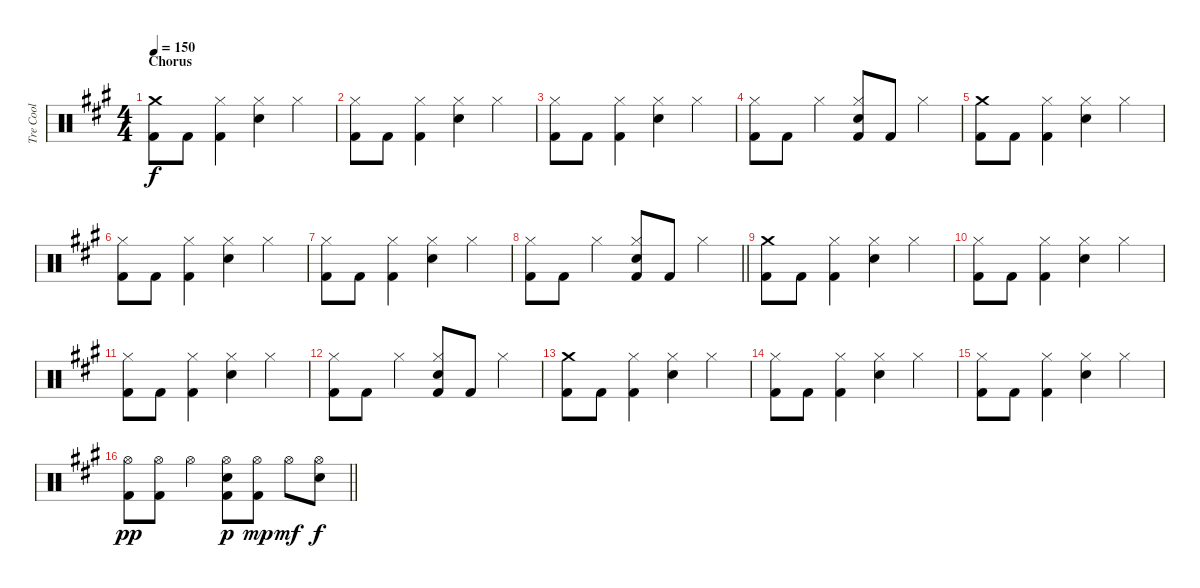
\track ("Tre Cool" "Tre Cool") {instrument percussion}
\staff {score}
\articulation defaults
\ts (4 4)
\section ("" "Chorus")
\tempo 150
\clef neutral
\ks a
("Crash medium (hit)" "Kick (hit) 2").8{dy f} "Kick (hit) 2".8 ("Hi-Hat (closed)" "Kick (hit) 2").4 ("Hi-Hat (closed)" "Snare (hit) 2").4 "Hi-Hat (closed)".4 |
("Hi-Hat (closed)" "Kick (hit) 2").8 "Kick (hit) 2".8 ("Hi-Hat (closed)" "Kick (hit) 2").4 ("Hi-Hat (closed)" "Snare (hit) 2").4 "Hi-Hat (closed)".4 |
("Hi-Hat (closed)" "Kick (hit) 2").8 "Kick (hit) 2".8 ("Hi-Hat (closed)" "Kick (hit) 2").4 ("Hi-Hat (closed)" "Snare (hit) 2").4 "Hi-Hat (closed)".4 |
("Hi-Hat (closed)" "Kick (hit) 2").8 "Kick (hit) 2".8 "Hi-Hat (closed)".4 ("Hi-Hat (closed)" "Snare (hit) 2" "Kick (hit) 2").8 "Kick (hit) 2".8 "Hi-Hat (closed)".4 |
("Crash medium (hit)" "Kick (hit) 2").8 "Kick (hit) 2".8 ("Hi-Hat (closed)" "Kick (hit) 2").4 ("Hi-Hat (closed)" "Snare (hit) 2").4 "Hi-Hat (closed)".4 |
("Hi-Hat (closed)" "Kick (hit) 2").8 "Kick (hit) 2".8 ("Hi-Hat (closed)" "Kick (hit) 2").4 ("Hi-Hat (closed)" "Snare (hit) 2").4 "Hi-Hat (closed)".4 |
("Hi-Hat (closed)" "Kick (hit) 2").8 "Kick (hit) 2".8 ("Hi-Hat (closed)" "Kick (hit) 2").4 ("Hi-Hat (closed)" "Snare (hit) 2").4 "Hi-Hat (closed)".4 |
\barLineRight lightlight
("Hi-Hat (closed)" "Kick (hit) 2").8 "Kick (hit) 2".8 "Hi-Hat (closed)".4 ("Hi-Hat (closed)" "Snare (hit) 2" "Kick (hit) 2").8 "Kick (hit) 2".8 "Hi-Hat (closed)".4 |
("Crash medium (hit)" "Kick (hit) 2").8 "Kick (hit) 2".8 ("Hi-Hat (closed)" "Kick (hit) 2").4 ("Hi-Hat (closed)" "Snare (hit) 2").4 "Hi-Hat (closed)".4 |
("Hi-Hat (closed)" "Kick (hit) 2").8 "Kick (hit) 2".8 ("Hi-Hat (closed)" "Kick (hit) 2").4 ("Hi-Hat (closed)" "Snare (hit) 2").4 "Hi-Hat (closed)".4 |
("Hi-Hat (closed)" "Kick (hit) 2").8 "Kick (hit) 2".8 ("Hi-Hat (closed)" "Kick (hit) 2").4 ("Hi-Hat (closed)" "Snare (hit) 2").4 "Hi-Hat (closed)".4 |
("Hi-Hat (closed)" "Kick (hit) 2").8 "Kick (hit) 2".8 "Hi-Hat (closed)".4 ("Hi-Hat (closed)" "Snare (hit) 2" "Kick (hit) 2").8 "Kick (hit) 2".8 "Hi-Hat (closed)".4 |
("Crash medium (hit)" "Kick (hit) 2").8 "Kick (hit) 2".8 ("Hi-Hat (closed)" "Kick (hit) 2").4 ("Hi-Hat (closed)" "Snare (hit) 2").4 "Hi-Hat (closed)".4 |
("Hi-Hat (closed)" "Kick (hit) 2").8 "Kick (hit) 2".8 ("Hi-Hat (closed)" "Kick (hit) 2").4 ("Hi-Hat (closed)" "Snare (hit) 2").4 "Hi-Hat (closed)".4 |
("Hi-Hat (closed)" "Kick (hit) 2").8 "Kick (hit) 2".8 ("Hi-Hat (closed)" "Kick (hit) 2").4 ("Hi-Hat (closed)" "Snare (hit) 2").4 "Hi-Hat (closed)".4 |
\barLineRight lightlight
("Hi-Hat (open)" "Kick (hit) 2").8{dy pp} ("Hi-Hat (open)" "Kick (hit) 2").8 "Hi-Hat (open)".4 ("Hi-Hat (open)" "Snare (hit) 2" "Kick (hit) 2").8{dy p} ("Hi-Hat (open)" "Kick (hit) 2").8{dy mp} "Hi-Hat (open)".8{dy mf} ("Hi-Hat (open)" "Snare (hit) 2").8{dy f}
